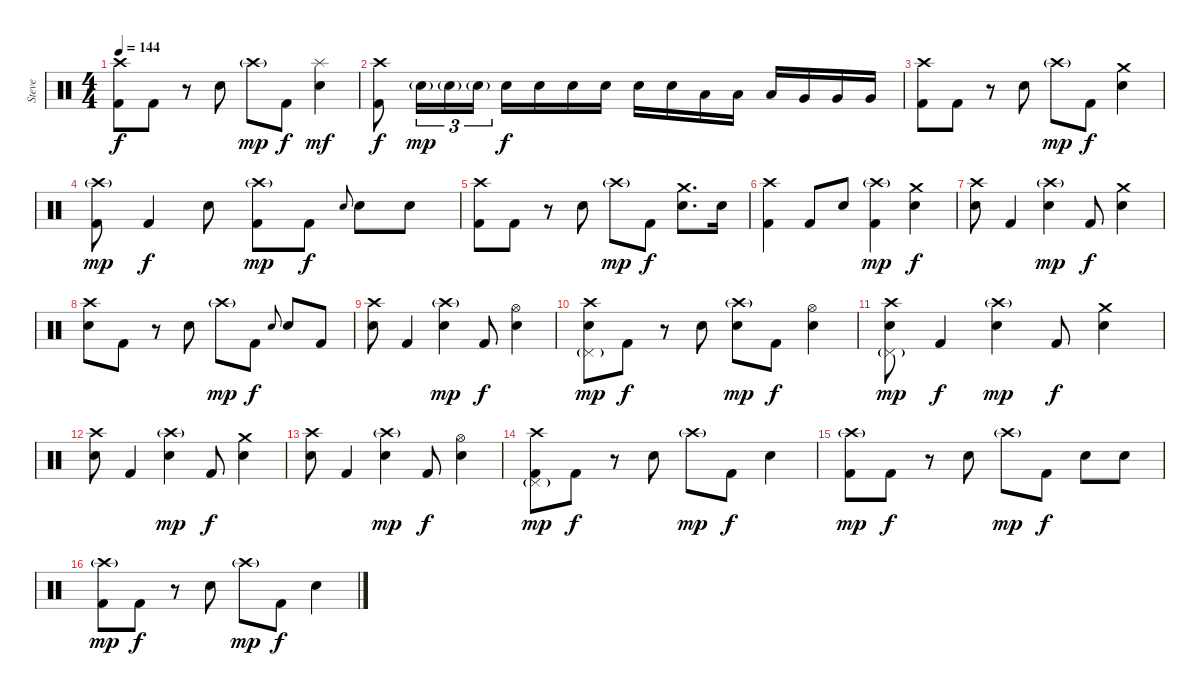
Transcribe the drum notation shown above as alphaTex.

\track ("Steve" "Steve") {instrument percussion}
\staff {score}
\articulation defaults
\ts (4 4)
\tempo 144
\clef neutral
\ks c
("Crash high (hit)" "Kick (hit) 2").8{dy f} "Kick (hit) 2".8 r.8 "Electric Snare (hit)".8 "Crash high (hit)"{g}.8{dy mp} "Kick (hit) 2".8{dy f} ("Splash (hit)" "Electric Snare (hit)").4{dy mf} |
("Crash high (hit)" "Kick (hit) 2").8{dy f} "Electric Snare (hit)"{g}.16{tu (3 2) dy mp} "Electric Snare (hit)"{g}.16{tu (3 2)} "Electric Snare (hit)"{g}.16{tu (3 2)} "Electric Snare (hit)".16{dy f} "Electric Snare (hit)".16 "Electric Snare (hit)".16 "Electric Snare (hit)".16 "Electric Snare (hit)".16 "Electric Snare (hit)".16 "Low Tom (hit)".16 "Low Tom (hit)".16 "Low Tom (hit)".16 "Very Low Tom (hit)".16 "Very Low Tom (hit)".16 "Very Low Tom (hit)".16 |
("Crash high (hit)" "Kick (hit) 2").8 "Kick (hit) 2".8 r.8 "Electric Snare (hit)".8 "Crash high (hit)"{g}.8{dy mp} "Kick (hit) 2".8{dy f} ("Crash medium (hit)" "Electric Snare (hit)").4 |
("Crash high (hit)"{g} "Kick (hit) 2").8{dy mp} "Kick (hit) 2".4{dy f} "Electric Snare (hit)".8 ("Crash high (hit)"{g} "Kick (hit) 2").8{dy mp} "Kick (hit) 2".8{dy f} "Electric Snare (hit)".8{gr onbeat} "Electric Snare (hit)".8 "Electric Snare (hit)".8 |
("Crash high (hit)" "Kick (hit) 2").8 "Kick (hit) 2".8 r.8 "Electric Snare (hit)".8 "Crash high (hit)"{g}.8{dy mp} "Kick (hit) 2".8{dy f} ("Crash medium (hit)" "Electric Snare (hit)").8{d} "Electric Snare (hit)".16 |
("Crash high (hit)" "Kick (hit) 2").4 "Kick (hit) 2".8 "Electric Snare (hit)".8 ("Crash high (hit)"{g} "Kick (hit) 2").4{dy mp} ("Crash medium (hit)" "Electric Snare (hit)").4{dy f} |
("Crash high (hit)" "Electric Snare (hit)").8 "Kick (hit) 2".4 ("Crash high (hit)"{g} "Electric Snare (hit)").4{dy mp} "Kick (hit) 2".8{dy f} ("Crash medium (hit)" "Electric Snare (hit)").4 |
("Crash high (hit)" "Electric Snare (hit)").8 "Kick (hit) 2".8 r.8 "Electric Snare (hit)".8 "Crash high (hit)"{g}.8{dy mp} "Kick (hit) 2".8{dy f} "Electric Snare (hit)".8{gr onbeat} "Electric Snare (hit)".8 "Kick (hit) 2".8 |
("Crash high (hit)" "Electric Snare (hit)").8 "Kick (hit) 2".4 ("Crash high (hit)"{g} "Electric Snare (hit)").4{dy mp} "Kick (hit) 2".8{dy f} ("Hi-Hat (open)" "Electric Snare (hit)").4 |
("Crash high (hit)" "Pedal Hi-Hat (hit)"{g} "Electric Snare (hit)").8{dy mp} "Kick (hit) 2".8{dy f} r.8 "Electric Snare (hit)".8 ("Crash high (hit)"{g} "Electric Snare (hit)").8{dy mp} "Kick (hit) 2".8{dy f} ("Hi-Hat (open)" "Electric Snare (hit)").4 |
("Crash high (hit)" "Pedal Hi-Hat (hit)"{g} "Electric Snare (hit)").8{dy mp} "Kick (hit) 2".4{dy f} ("Crash high (hit)"{g} "Electric Snare (hit)").4{dy mp} "Kick (hit) 2".8{dy f} ("Crash medium (hit)" "Electric Snare (hit)").4 |
("Crash high (hit)" "Electric Snare (hit)").8 "Kick (hit) 2".4 ("Crash high (hit)"{g} "Electric Snare (hit)").4{dy mp} "Kick (hit) 2".8{dy f} ("Crash medium (hit)" "Electric Snare (hit)").4 |
("Crash high (hit)" "Electric Snare (hit)").8 "Kick (hit) 2".4 ("Crash high (hit)"{g} "Electric Snare (hit)").4{dy mp} "Kick (hit) 2".8{dy f} ("Hi-Hat (open)" "Electric Snare (hit)").4 |
("Crash high (hit)" "Pedal Hi-Hat (hit)"{g} "Kick (hit) 2").8{dy mp} "Kick (hit) 2".8{dy f} r.8 "Electric Snare (hit)".8 "Crash high (hit)"{g}.8{dy mp} "Kick (hit) 2".8{dy f} "Electric Snare (hit)".4 |
("Crash high (hit)"{g} "Kick (hit) 2").8{dy mp} "Kick (hit) 2".8{dy f} r.8 "Electric Snare (hit)".8 "Crash high (hit)"{g}.8{dy mp} "Kick (hit) 2".8{dy f} "Electric Snare (hit)".8 "Electric Snare (hit)".8 |
("Crash high (hit)"{g} "Kick (hit) 2").8{dy mp} "Kick (hit) 2".8{dy f} r.8 "Electric Snare (hit)".8 "Crash high (hit)"{g}.8{dy mp} "Kick (hit) 2".8{dy f} "Electric Snare (hit)".4
